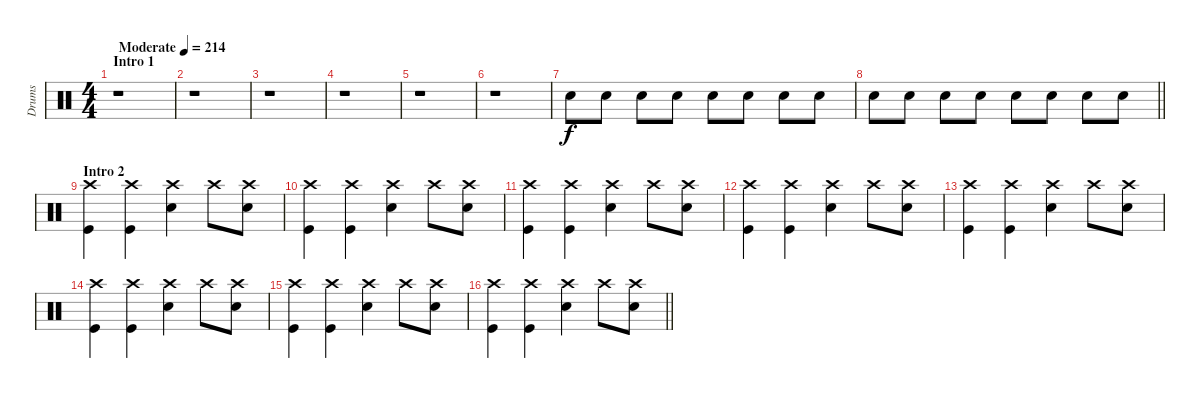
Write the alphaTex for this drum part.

\track ("Drums" "Drums") {instrument percussion}
\staff {score}
\articulation defaults
\ts (4 4)
\section ("" "Intro 1")
\tempo (214 "Moderate")
\clef neutral
\ks c
r.1{dy f} |
r.1 |
r.1 |
r.1 |
r.1 |
r.1 |
"Snare (hit) 2".8{volume 16} "Snare (hit) 2".8 "Snare (hit) 2".8 "Snare (hit) 2".8 "Snare (hit) 2".8 "Snare (hit) 2".8 "Snare (hit) 2".8 "Snare (hit) 2".8 |
\barLineRight lightlight "Snare (hit) 2".8 "Snare (hit) 2".8 "Snare (hit) 2".8 "Snare (hit) 2".8 "Snare (hit) 2".8 "Snare (hit) 2".8 "Snare (hit) 2".8 "Snare (hit) 2".8{volume 16}
|
\section ("" "Intro 2")
("Crash high (hit)" "Kick (hit)").4 ("Crash high (hit)" "Kick (hit)").4 ("Crash high (hit)" "Snare (hit) 2").4 "Crash high (hit)".8 ("Crash high (hit)" "Snare (hit) 2").8 |
("Crash high (hit)" "Kick (hit)").4 ("Crash high (hit)" "Kick (hit)").4 ("Crash high (hit)" "Snare (hit) 2").4 "Crash high (hit)".8 ("Crash high (hit)" "Snare (hit) 2").8 |
("Crash high (hit)" "Kick (hit)").4 ("Crash high (hit)" "Kick (hit)").4 ("Crash high (hit)" "Snare (hit) 2").4 "Crash high (hit)".8 ("Crash high (hit)" "Snare (hit) 2").8 |
("Crash high (hit)" "Kick (hit)").4 ("Crash high (hit)" "Kick (hit)").4 ("Crash high (hit)" "Snare (hit) 2").4 "Crash high (hit)".8 ("Crash high (hit)" "Snare (hit) 2").8 |
("Crash high (hit)" "Kick (hit)").4 ("Crash high (hit)" "Kick (hit)").4 ("Crash high (hit)" "Snare (hit) 2").4 "Crash high (hit)".8 ("Crash high (hit)" "Snare (hit) 2").8 |
("Crash high (hit)" "Kick (hit)").4 ("Crash high (hit)" "Kick (hit)").4 ("Crash high (hit)" "Snare (hit) 2").4 "Crash high (hit)".8 ("Crash high (hit)" "Snare (hit) 2").8 |
("Crash high (hit)" "Kick (hit)").4 ("Crash high (hit)" "Kick (hit)").4 ("Crash high (hit)" "Snare (hit) 2").4 "Crash high (hit)".8 ("Crash high (hit)" "Snare (hit) 2").8 |
\barLineRight lightlight
("Crash high (hit)" "Kick (hit)").4 ("Crash high (hit)" "Kick (hit)").4 ("Crash high (hit)" "Snare (hit) 2").4 "Crash high (hit)".8 ("Crash high (hit)" "Snare (hit) 2").8
